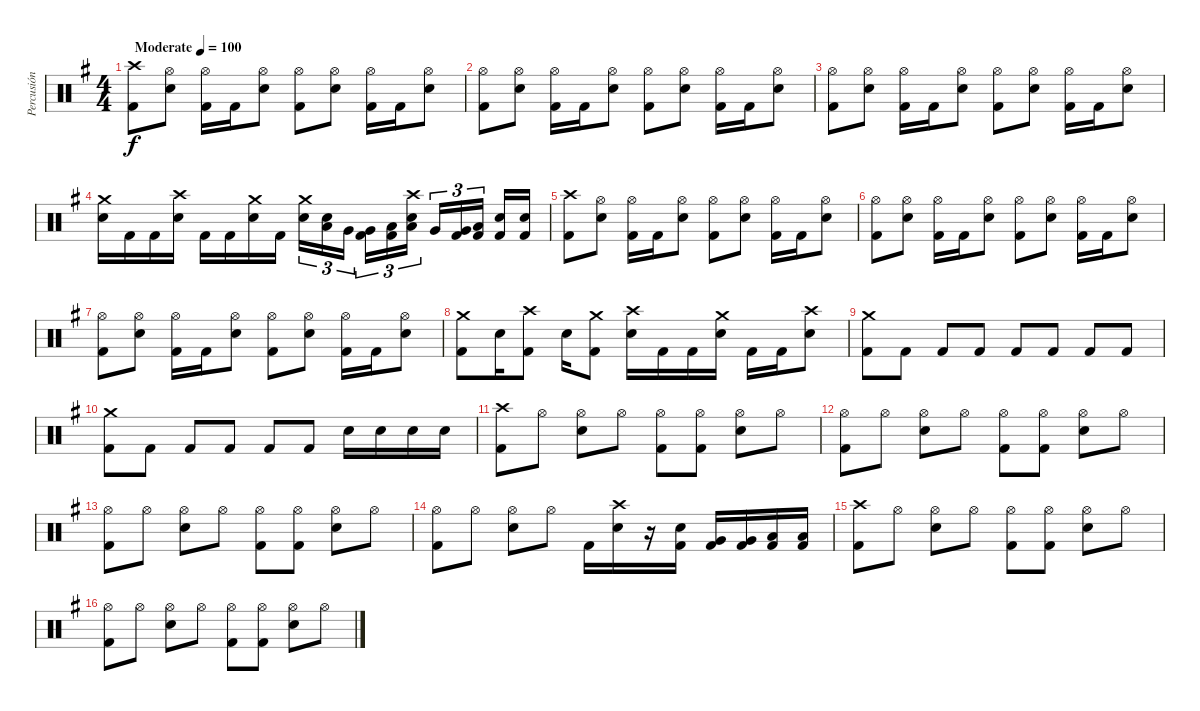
\track ("Percusión" "Percusión") {instrument percussion}
\staff {score}
\articulation defaults
\ts (4 4)
\tempo (100 "Moderate")
\clef neutral
\ks g
("Crash high (hit)" "Kick (hit) 2").8{dy f} ("Hi-Hat (open)" "Electric Snare (hit)").8 ("Hi-Hat (open)" "Kick (hit) 2").16 "Kick (hit) 2".16 ("Hi-Hat (open)" "Electric Snare (hit)").8 ("Hi-Hat (open)" "Kick (hit) 2").8 ("Hi-Hat (open)" "Electric Snare (hit)").8 ("Hi-Hat (open)" "Kick (hit) 2").16 "Kick (hit) 2".16 ("Hi-Hat (open)" "Electric Snare (hit)").8 |
("Hi-Hat (open)" "Kick (hit) 2").8 ("Hi-Hat (open)" "Electric Snare (hit)").8 ("Hi-Hat (open)" "Kick (hit) 2").16 "Kick (hit) 2".16 ("Hi-Hat (open)" "Electric Snare (hit)").8 ("Hi-Hat (open)" "Kick (hit) 2").8 ("Hi-Hat (open)" "Electric Snare (hit)").8 ("Hi-Hat (open)" "Kick (hit) 2").16 "Kick (hit) 2".16 ("Hi-Hat (open)" "Electric Snare (hit)").8 |
("Hi-Hat (open)" "Kick (hit) 2").8 ("Hi-Hat (open)" "Electric Snare (hit)").8 ("Hi-Hat (open)" "Kick (hit) 2").16 "Kick (hit) 2".16 ("Hi-Hat (open)" "Electric Snare (hit)").8 ("Hi-Hat (open)" "Kick (hit) 2").8 ("Hi-Hat (open)" "Electric Snare (hit)").8 ("Hi-Hat (open)" "Kick (hit) 2").16 "Kick (hit) 2".16 ("Hi-Hat (open)" "Electric Snare (hit)").8 |
("Crash medium (hit)" "Electric Snare (hit)").16 "Kick (hit) 2".16 "Kick (hit) 2".16 ("Crash high (hit)" "Electric Snare (hit)").16 "Kick (hit) 2".16 "Kick (hit) 2".16 ("Crash medium (hit)" "Electric Snare (hit)").16 "Kick (hit) 2".16 ("Crash medium (hit)" "Electric Snare (hit)").16{tu (3 2)} ("Electric Snare (hit)" "Low Tom (hit)").16{tu (3 2)} "Very Low Tom (hit)".16{tu (3 2) beam splitsecondary} ("Very Low Tom (hit)" "Kick (hit) 2").16{tu (3 2)} ("Low Floor Tom (hit)" "Kick (hit) 2").16{tu (3 2)} ("Crash high (hit)" "Electric Snare (hit)" "Low Tom (hit)").16{tu (3 2)} "Very Low Tom (hit)".16{tu (3 2)} ("Very Low Tom (hit)" "Kick (hit) 2").16{tu (3 2)} ("Low Floor Tom (hit)" "Kick (hit) 2").16{tu (3 2) beam splitsecondary} ("Electric Snare (hit)" "Kick (hit) 2").16 ("Electric Snare (hit)" "Kick (hit) 2").16 |
("Crash high (hit)" "Kick (hit) 2").8 ("Hi-Hat (open)" "Electric Snare (hit)").8 ("Hi-Hat (open)" "Kick (hit) 2").16 "Kick (hit) 2".16 ("Hi-Hat (open)" "Electric Snare (hit)").8 ("Hi-Hat (open)" "Kick (hit) 2").8 ("Hi-Hat (open)" "Electric Snare (hit)").8 ("Hi-Hat (open)" "Kick (hit) 2").16 "Kick (hit) 2".16 ("Hi-Hat (open)" "Electric Snare (hit)").8 |
("Hi-Hat (open)" "Kick (hit) 2").8 ("Hi-Hat (open)" "Electric Snare (hit)").8 ("Hi-Hat (open)" "Kick (hit) 2").16 "Kick (hit) 2".16 ("Hi-Hat (open)" "Electric Snare (hit)").8 ("Hi-Hat (open)" "Kick (hit) 2").8 ("Hi-Hat (open)" "Electric Snare (hit)").8 ("Hi-Hat (open)" "Kick (hit) 2").16 "Kick (hit) 2".16 ("Hi-Hat (open)" "Electric Snare (hit)").8 |
("Hi-Hat (open)" "Kick (hit) 2").8 ("Hi-Hat (open)" "Electric Snare (hit)").8 ("Hi-Hat (open)" "Kick (hit) 2").16 "Kick (hit) 2".16 ("Hi-Hat (open)" "Electric Snare (hit)").8 ("Hi-Hat (open)" "Kick (hit) 2").8 ("Hi-Hat (open)" "Electric Snare (hit)").8 ("Hi-Hat (open)" "Kick (hit) 2").16 "Kick (hit) 2".16 ("Hi-Hat (open)" "Electric Snare (hit)").8 |
("Crash medium (hit)" "Kick (hit) 2").8 "Electric Snare (hit)".16 ("Crash high (hit)" "Kick (hit) 2").8 "Electric Snare (hit)".16 ("Crash medium (hit)" "Kick (hit) 2").8 ("Crash high (hit)" "Electric Snare (hit)").16 "Kick (hit) 2".16 "Kick (hit) 2".16 ("Crash medium (hit)" "Electric Snare (hit)").16 "Kick (hit) 2".16 "Kick (hit) 2".16 ("Crash high (hit)" "Electric Snare (hit)").8 |
("Crash medium (hit)" "Kick (hit) 2").8 "Kick (hit) 2".8 "Kick (hit) 2".8 "Kick (hit) 2".8 "Kick (hit) 2".8 "Kick (hit) 2".8 "Kick (hit) 2".8 "Kick (hit) 2".8 |
("Crash medium (hit)" "Kick (hit) 2").8 "Kick (hit) 2".8 "Kick (hit) 2".8 "Kick (hit) 2".8 "Kick (hit) 2".8 "Kick (hit) 2".8 "Electric Snare (hit)".16 "Electric Snare (hit)".16 "Electric Snare (hit)".16 "Electric Snare (hit)".16 |
("Crash high (hit)" "Kick (hit) 2").8 "Hi-Hat (open)".8 ("Hi-Hat (open)" "Electric Snare (hit)").8 "Hi-Hat (open)".8 ("Hi-Hat (open)" "Kick (hit) 2").8 ("Hi-Hat (open)" "Kick (hit) 2").8 ("Hi-Hat (open)" "Electric Snare (hit)").8 "Hi-Hat (open)".8 |
("Hi-Hat (open)" "Kick (hit) 2").8 "Hi-Hat (open)".8 ("Hi-Hat (open)" "Electric Snare (hit)").8 "Hi-Hat (open)".8 ("Hi-Hat (open)" "Kick (hit) 2").8 ("Hi-Hat (open)" "Kick (hit) 2").8 ("Hi-Hat (open)" "Electric Snare (hit)").8 "Hi-Hat (open)".8 |
("Hi-Hat (open)" "Kick (hit) 2").8 "Hi-Hat (open)".8 ("Hi-Hat (open)" "Electric Snare (hit)").8 "Hi-Hat (open)".8 ("Hi-Hat (open)" "Kick (hit) 2").8 ("Hi-Hat (open)" "Kick (hit) 2").8 ("Hi-Hat (open)" "Electric Snare (hit)").8 "Hi-Hat (open)".8 |
("Hi-Hat (open)" "Kick (hit) 2").8 "Hi-Hat (open)".8 ("Hi-Hat (open)" "Electric Snare (hit)").8 "Hi-Hat (open)".8 "Kick (hit) 2".16 ("Crash high (hit)" "Electric Snare (hit)").16 r.16 ("Electric Snare (hit)" "Kick (hit) 2").16 ("Very Low Tom (hit)" "Kick (hit) 2").16 ("Very Low Tom (hit)" "Kick (hit) 2").16 ("Low Floor Tom (hit)" "Kick (hit) 2").16 ("Low Floor Tom (hit)" "Kick (hit) 2").16 |
("Crash high (hit)" "Kick (hit) 2").8 "Hi-Hat (open)".8 ("Hi-Hat (open)" "Electric Snare (hit)").8 "Hi-Hat (open)".8 ("Hi-Hat (open)" "Kick (hit) 2").8 ("Hi-Hat (open)" "Kick (hit) 2").8 ("Hi-Hat (open)" "Electric Snare (hit)").8 "Hi-Hat (open)".8 |
("Hi-Hat (open)" "Kick (hit) 2").8 "Hi-Hat (open)".8 ("Hi-Hat (open)" "Electric Snare (hit)").8 "Hi-Hat (open)".8 ("Hi-Hat (open)" "Kick (hit) 2").8 ("Hi-Hat (open)" "Kick (hit) 2").8 ("Hi-Hat (open)" "Electric Snare (hit)").8 "Hi-Hat (open)".8
